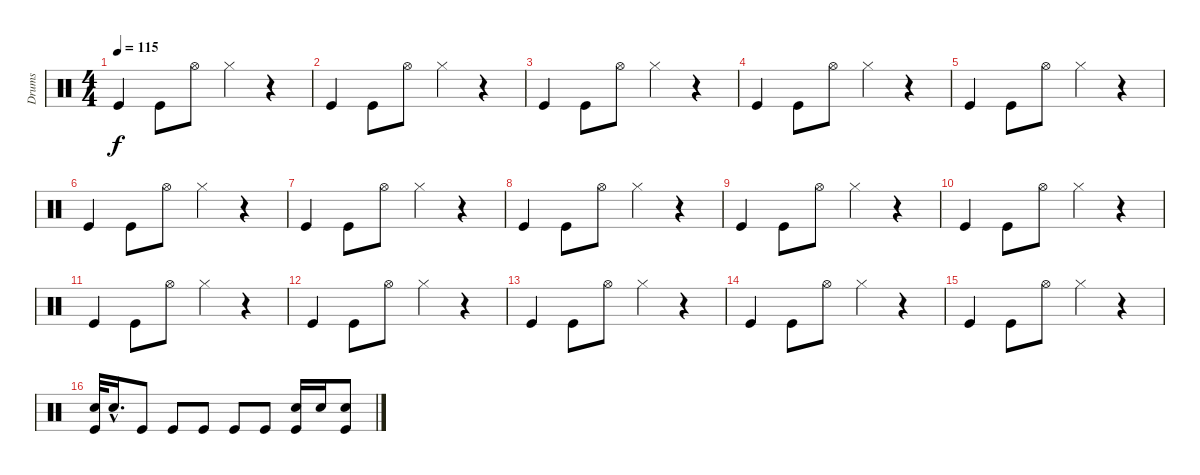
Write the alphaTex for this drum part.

\track ("Drums" "Drums") {instrument percussion}
\staff {score}
\articulation defaults
\ts (4 4)
\tempo 115
\clef neutral
\ks c "Kick (hit)".4{dy f} "Kick (hit)".8 "Hi-Hat (open)".8 "Hi-Hat (closed)".4
r.4 |
"Kick (hit)".4 "Kick (hit)".8 "Hi-Hat (open)".8 "Hi-Hat (closed)".4 r.4 |
"Kick (hit)".4 "Kick (hit)".8 "Hi-Hat (open)".8 "Hi-Hat (closed)".4 r.4 |
"Kick (hit)".4 "Kick (hit)".8 "Hi-Hat (open)".8 "Hi-Hat (closed)".4 r.4 |
"Kick (hit)".4 "Kick (hit)".8 "Hi-Hat (open)".8 "Hi-Hat (closed)".4 r.4 |
"Kick (hit)".4 "Kick (hit)".8 "Hi-Hat (open)".8 "Hi-Hat (closed)".4 r.4 |
"Kick (hit)".4 "Kick (hit)".8 "Hi-Hat (open)".8 "Hi-Hat (closed)".4 r.4 |
"Kick (hit)".4 "Kick (hit)".8 "Hi-Hat (open)".8 "Hi-Hat (closed)".4 r.4 |
"Kick (hit)".4 "Kick (hit)".8 "Hi-Hat (open)".8 "Hi-Hat (closed)".4 r.4 |
"Kick (hit)".4 "Kick (hit)".8 "Hi-Hat (open)".8 "Hi-Hat (closed)".4 r.4 |
"Kick (hit)".4 "Kick (hit)".8 "Hi-Hat (open)".8 "Hi-Hat (closed)".4 r.4 |
"Kick (hit)".4 "Kick (hit)".8 "Hi-Hat (open)".8 "Hi-Hat (closed)".4 r.4 |
"Kick (hit)".4 "Kick (hit)".8 "Hi-Hat (open)".8 "Hi-Hat (closed)".4 r.4 |
"Kick (hit)".4 "Kick (hit)".8 "Hi-Hat (open)".8 "Hi-Hat (closed)".4 r.4 |
"Kick (hit)".4 "Kick (hit)".8 "Hi-Hat (open)".8 "Hi-Hat (closed)".4 r.4 |
("Snare (hit) 2" "Kick (hit)").32 "Snare (hit) 2"{hac}.16{d} "Kick (hit)".8 "Kick (hit)".8 "Kick (hit)".8 "Kick (hit)".8 "Kick (hit)".8 ("Snare (hit) 2" "Kick (hit)").16 "Snare (hit) 2".16 ("Snare (hit) 2" "Kick (hit)").8
